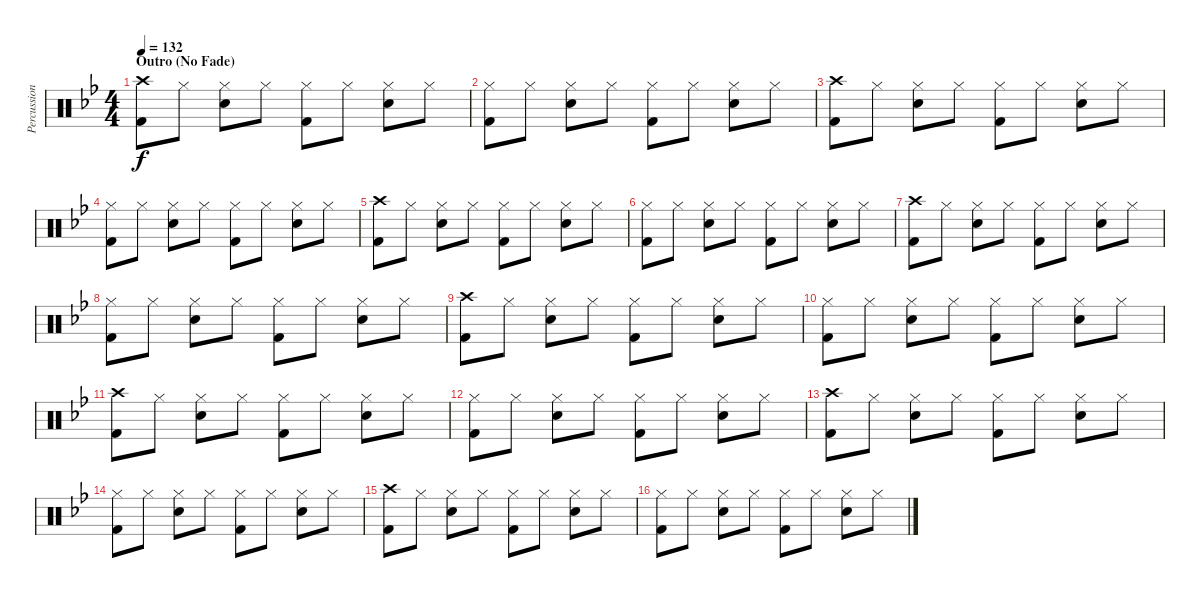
\track ("Percussion" "Percussion") {instrument percussion}
\staff {score}
\articulation defaults
\ts (4 4)
\section ("" "Outro (No Fade)")
\tempo 132
\clef neutral
\ks bb
("Crash high (hit)" "Kick (hit) 2").8{dy f} "Hi-Hat (closed)".8 ("Hi-Hat (closed)" "Snare (hit) 2").8 "Hi-Hat (closed)".8 ("Hi-Hat (closed)" "Kick (hit) 2").8 "Hi-Hat (closed)".8 ("Hi-Hat (closed)" "Snare (hit) 2").8 "Hi-Hat (closed)".8 |
("Hi-Hat (closed)" "Kick (hit) 2").8 "Hi-Hat (closed)".8 ("Hi-Hat (closed)" "Snare (hit) 2").8 "Hi-Hat (closed)".8 ("Hi-Hat (closed)" "Kick (hit) 2").8 "Hi-Hat (closed)".8 ("Hi-Hat (closed)" "Snare (hit) 2").8 "Hi-Hat (closed)".8 |
("Crash high (hit)" "Kick (hit) 2").8 "Hi-Hat (closed)".8 ("Hi-Hat (closed)" "Snare (hit) 2").8 "Hi-Hat (closed)".8 ("Hi-Hat (closed)" "Kick (hit) 2").8 "Hi-Hat (closed)".8 ("Hi-Hat (closed)" "Snare (hit) 2").8 "Hi-Hat (closed)".8 |
("Hi-Hat (closed)" "Kick (hit) 2").8 "Hi-Hat (closed)".8 ("Hi-Hat (closed)" "Snare (hit) 2").8 "Hi-Hat (closed)".8 ("Hi-Hat (closed)" "Kick (hit) 2").8 "Hi-Hat (closed)".8 ("Hi-Hat (closed)" "Snare (hit) 2").8 "Hi-Hat (closed)".8 |
("Crash high (hit)" "Kick (hit) 2").8 "Hi-Hat (closed)".8 ("Hi-Hat (closed)" "Snare (hit) 2").8 "Hi-Hat (closed)".8 ("Hi-Hat (closed)" "Kick (hit) 2").8 "Hi-Hat (closed)".8 ("Hi-Hat (closed)" "Snare (hit) 2").8 "Hi-Hat (closed)".8 |
("Hi-Hat (closed)" "Kick (hit) 2").8 "Hi-Hat (closed)".8 ("Hi-Hat (closed)" "Snare (hit) 2").8 "Hi-Hat (closed)".8 ("Hi-Hat (closed)" "Kick (hit) 2").8 "Hi-Hat (closed)".8 ("Hi-Hat (closed)" "Snare (hit) 2").8 "Hi-Hat (closed)".8 |
("Crash high (hit)" "Kick (hit) 2").8 "Hi-Hat (closed)".8 ("Hi-Hat (closed)" "Snare (hit) 2").8 "Hi-Hat (closed)".8 ("Hi-Hat (closed)" "Kick (hit) 2").8 "Hi-Hat (closed)".8 ("Hi-Hat (closed)" "Snare (hit) 2").8 "Hi-Hat (closed)".8 |
("Hi-Hat (closed)" "Kick (hit) 2").8 "Hi-Hat (closed)".8 ("Hi-Hat (closed)" "Snare (hit) 2").8 "Hi-Hat (closed)".8 ("Hi-Hat (closed)" "Kick (hit) 2").8 "Hi-Hat (closed)".8 ("Hi-Hat (closed)" "Snare (hit) 2").8 "Hi-Hat (closed)".8 |
("Crash high (hit)" "Kick (hit) 2").8 "Hi-Hat (closed)".8 ("Hi-Hat (closed)" "Snare (hit) 2").8 "Hi-Hat (closed)".8 ("Hi-Hat (closed)" "Kick (hit) 2").8 "Hi-Hat (closed)".8 ("Hi-Hat (closed)" "Snare (hit) 2").8 "Hi-Hat (closed)".8 |
("Hi-Hat (closed)" "Kick (hit) 2").8 "Hi-Hat (closed)".8 ("Hi-Hat (closed)" "Snare (hit) 2").8 "Hi-Hat (closed)".8 ("Hi-Hat (closed)" "Kick (hit) 2").8 "Hi-Hat (closed)".8 ("Hi-Hat (closed)" "Snare (hit) 2").8 "Hi-Hat (closed)".8 |
("Crash high (hit)" "Kick (hit) 2").8 "Hi-Hat (closed)".8 ("Hi-Hat (closed)" "Snare (hit) 2").8 "Hi-Hat (closed)".8 ("Hi-Hat (closed)" "Kick (hit) 2").8 "Hi-Hat (closed)".8 ("Hi-Hat (closed)" "Snare (hit) 2").8 "Hi-Hat (closed)".8 |
("Hi-Hat (closed)" "Kick (hit) 2").8 "Hi-Hat (closed)".8 ("Hi-Hat (closed)" "Snare (hit) 2").8 "Hi-Hat (closed)".8 ("Hi-Hat (closed)" "Kick (hit) 2").8 "Hi-Hat (closed)".8 ("Hi-Hat (closed)" "Snare (hit) 2").8 "Hi-Hat (closed)".8 |
("Crash high (hit)" "Kick (hit) 2").8 "Hi-Hat (closed)".8 ("Hi-Hat (closed)" "Snare (hit) 2").8 "Hi-Hat (closed)".8 ("Hi-Hat (closed)" "Kick (hit) 2").8 "Hi-Hat (closed)".8 ("Hi-Hat (closed)" "Snare (hit) 2").8 "Hi-Hat (closed)".8 |
("Hi-Hat (closed)" "Kick (hit) 2").8 "Hi-Hat (closed)".8 ("Hi-Hat (closed)" "Snare (hit) 2").8 "Hi-Hat (closed)".8 ("Hi-Hat (closed)" "Kick (hit) 2").8 "Hi-Hat (closed)".8 ("Hi-Hat (closed)" "Snare (hit) 2").8 "Hi-Hat (closed)".8 |
("Crash high (hit)" "Kick (hit) 2").8 "Hi-Hat (closed)".8 ("Hi-Hat (closed)" "Snare (hit) 2").8 "Hi-Hat (closed)".8 ("Hi-Hat (closed)" "Kick (hit) 2").8 "Hi-Hat (closed)".8 ("Hi-Hat (closed)" "Snare (hit) 2").8 "Hi-Hat (closed)".8 |
("Hi-Hat (closed)" "Kick (hit) 2").8 "Hi-Hat (closed)".8 ("Hi-Hat (closed)" "Snare (hit) 2").8 "Hi-Hat (closed)".8 ("Hi-Hat (closed)" "Kick (hit) 2").8 "Hi-Hat (closed)".8 ("Hi-Hat (closed)" "Snare (hit) 2").8 "Hi-Hat (closed)".8
